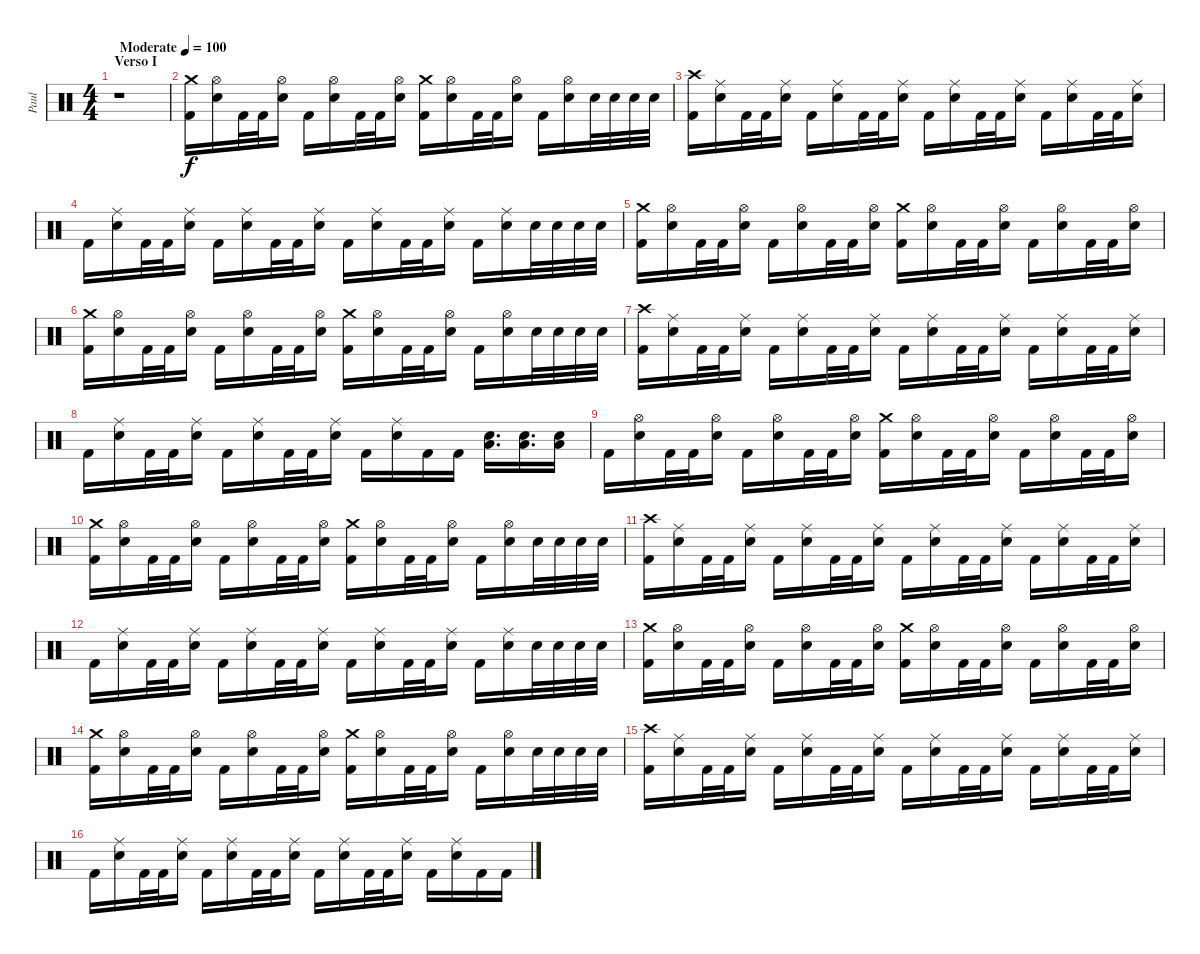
\track ("Paul" "Paul") {instrument percussion}
\staff
\articulation defaults
\ts (4 4)
\section ("" "Verso I")
\tempo (100 "Moderate")
\clef neutral
\ks c
r.1{dy f} |
("Crash medium (hit)" "Kick (hit) 2").16 ("Hi-Hat (open)" "Electric Snare (hit)").16 "Kick (hit) 2".32 "Kick (hit) 2".32 ("Hi-Hat (open)" "Electric Snare (hit)").16 "Kick (hit) 2".16 ("Hi-Hat (open)" "Electric Snare (hit)").16 "Kick (hit) 2".32 "Kick (hit) 2".32 ("Hi-Hat (open)" "Electric Snare (hit)").16 ("Crash medium (hit)" "Kick (hit) 2").16 ("Hi-Hat (open)" "Electric Snare (hit)").16 "Kick (hit) 2".32 "Kick (hit) 2".32 ("Hi-Hat (open)" "Electric Snare (hit)").16 "Kick (hit) 2".16 ("Hi-Hat (open)" "Electric Snare (hit)").16 "Electric Snare (hit)".32 "Electric Snare (hit)".32 "Electric Snare (hit)".32 "Electric Snare (hit)".32 |
("Crash high (hit)" "Kick (hit) 2").16 ("Ride (middle)" "Electric Snare (hit)").16 "Kick (hit) 2".32 "Kick (hit) 2".32 ("Ride (middle)" "Electric Snare (hit)").16 "Kick (hit) 2".16 ("Ride (middle)" "Electric Snare (hit)").16 "Kick (hit) 2".32 "Kick (hit) 2".32 ("Ride (middle)" "Electric Snare (hit)").16 "Kick (hit) 2".16 ("Ride (middle)" "Electric Snare (hit)").16 "Kick (hit) 2".32 "Kick (hit) 2".32 ("Ride (middle)" "Electric Snare (hit)").16 "Kick (hit) 2".16 ("Ride (middle)" "Electric Snare (hit)").16 "Kick (hit) 2".32 "Kick (hit) 2".32 ("Ride (middle)" "Electric Snare (hit)").16 |
"Kick (hit) 2".16 ("Ride (middle)" "Electric Snare (hit)").16 "Kick (hit) 2".32 "Kick (hit) 2".32 ("Ride (middle)" "Electric Snare (hit)").16 "Kick (hit) 2".16 ("Ride (middle)" "Electric Snare (hit)").16 "Kick (hit) 2".32 "Kick (hit) 2".32 ("Ride (middle)" "Electric Snare (hit)").16 "Kick (hit) 2".16 ("Ride (middle)" "Electric Snare (hit)").16 "Kick (hit) 2".32 "Kick (hit) 2".32 ("Ride (middle)" "Electric Snare (hit)").16 "Kick (hit) 2".16 ("Ride (middle)" "Electric Snare (hit)").16 "Electric Snare (hit)".32 "Electric Snare (hit)".32 "Electric Snare (hit)".32 "Electric Snare (hit)".32 |
("Crash medium (hit)" "Kick (hit) 2").16 ("Hi-Hat (open)" "Electric Snare (hit)").16 "Kick (hit) 2".32 "Kick (hit) 2".32 ("Hi-Hat (open)" "Electric Snare (hit)").16 "Kick (hit) 2".16 ("Hi-Hat (open)" "Electric Snare (hit)").16 "Kick (hit) 2".32 "Kick (hit) 2".32 ("Hi-Hat (open)" "Electric Snare (hit)").16 ("Crash medium (hit)" "Kick (hit) 2").16 ("Hi-Hat (open)" "Electric Snare (hit)").16 "Kick (hit) 2".32 "Kick (hit) 2".32 ("Hi-Hat (open)" "Electric Snare (hit)").16 "Kick (hit) 2".16 ("Hi-Hat (open)" "Electric Snare (hit)").16 "Kick (hit) 2".32 "Kick (hit) 2".32 ("Hi-Hat (open)" "Electric Snare (hit)").16 |
("Crash medium (hit)" "Kick (hit) 2").16 ("Hi-Hat (open)" "Electric Snare (hit)").16 "Kick (hit) 2".32 "Kick (hit) 2".32 ("Hi-Hat (open)" "Electric Snare (hit)").16 "Kick (hit) 2".16 ("Hi-Hat (open)" "Electric Snare (hit)").16 "Kick (hit) 2".32 "Kick (hit) 2".32 ("Hi-Hat (open)" "Electric Snare (hit)").16 ("Crash medium (hit)" "Kick (hit) 2").16 ("Hi-Hat (open)" "Electric Snare (hit)").16 "Kick (hit) 2".32 "Kick (hit) 2".32 ("Hi-Hat (open)" "Electric Snare (hit)").16 "Kick (hit) 2".16 ("Hi-Hat (open)" "Electric Snare (hit)").16 "Electric Snare (hit)".32 "Electric Snare (hit)".32 "Electric Snare (hit)".32 "Electric Snare (hit)".32 |
("Crash high (hit)" "Kick (hit) 2").16 ("Ride (middle)" "Electric Snare (hit)").16 "Kick (hit) 2".32 "Kick (hit) 2".32 ("Ride (middle)" "Electric Snare (hit)").16 "Kick (hit) 2".16 ("Ride (middle)" "Electric Snare (hit)").16 "Kick (hit) 2".32 "Kick (hit) 2".32 ("Ride (middle)" "Electric Snare (hit)").16 "Kick (hit) 2".16 ("Ride (middle)" "Electric Snare (hit)").16 "Kick (hit) 2".32 "Kick (hit) 2".32 ("Ride (middle)" "Electric Snare (hit)").16 "Kick (hit) 2".16 ("Ride (middle)" "Electric Snare (hit)").16 "Kick (hit) 2".32 "Kick (hit) 2".32 ("Ride (middle)" "Electric Snare (hit)").16 |
"Kick (hit) 2".16 ("Ride (middle)" "Electric Snare (hit)").16 "Kick (hit) 2".32 "Kick (hit) 2".32 ("Ride (middle)" "Electric Snare (hit)").16 "Kick (hit) 2".16 ("Ride (middle)" "Electric Snare (hit)").16 "Kick (hit) 2".32 "Kick (hit) 2".32 ("Ride (middle)" "Electric Snare (hit)").16 "Kick (hit) 2".16 ("Ride (middle)" "Electric Snare (hit)").16 "Kick (hit) 2".16 "Kick (hit) 2".16 ("Electric Snare (hit)" "Low Floor Tom (hit)").16{d} ("Electric Snare (hit)" "Low Floor Tom (hit)").16{d} ("Electric Snare (hit)" "Low Floor Tom (hit)").16 |
"Kick (hit) 2".16 ("Hi-Hat (open)" "Electric Snare (hit)").16 "Kick (hit) 2".32 "Kick (hit) 2".32 ("Hi-Hat (open)" "Electric Snare (hit)").16 "Kick (hit) 2".16 ("Hi-Hat (open)" "Electric Snare (hit)").16 "Kick (hit) 2".32 "Kick (hit) 2".32 ("Hi-Hat (open)" "Electric Snare (hit)").16 ("Crash medium (hit)" "Kick (hit) 2").16 ("Hi-Hat (open)" "Electric Snare (hit)").16 "Kick (hit) 2".32 "Kick (hit) 2".32 ("Hi-Hat (open)" "Electric Snare (hit)").16 "Kick (hit) 2".16 ("Hi-Hat (open)" "Electric Snare (hit)").16 "Kick (hit) 2".32 "Kick (hit) 2".32 ("Hi-Hat (open)" "Electric Snare (hit)").16 |
("Crash medium (hit)" "Kick (hit) 2").16 ("Hi-Hat (open)" "Electric Snare (hit)").16 "Kick (hit) 2".32 "Kick (hit) 2".32 ("Hi-Hat (open)" "Electric Snare (hit)").16 "Kick (hit) 2".16 ("Hi-Hat (open)" "Electric Snare (hit)").16 "Kick (hit) 2".32 "Kick (hit) 2".32 ("Hi-Hat (open)" "Electric Snare (hit)").16 ("Crash medium (hit)" "Kick (hit) 2").16 ("Hi-Hat (open)" "Electric Snare (hit)").16 "Kick (hit) 2".32 "Kick (hit) 2".32 ("Hi-Hat (open)" "Electric Snare (hit)").16 "Kick (hit) 2".16 ("Hi-Hat (open)" "Electric Snare (hit)").16 "Electric Snare (hit)".32 "Electric Snare (hit)".32 "Electric Snare (hit)".32 "Electric Snare (hit)".32 |
("Crash high (hit)" "Kick (hit) 2").16 ("Ride (middle)" "Electric Snare (hit)").16 "Kick (hit) 2".32 "Kick (hit) 2".32 ("Ride (middle)" "Electric Snare (hit)").16 "Kick (hit) 2".16 ("Ride (middle)" "Electric Snare (hit)").16 "Kick (hit) 2".32 "Kick (hit) 2".32 ("Ride (middle)" "Electric Snare (hit)").16 "Kick (hit) 2".16 ("Ride (middle)" "Electric Snare (hit)").16 "Kick (hit) 2".32 "Kick (hit) 2".32 ("Ride (middle)" "Electric Snare (hit)").16 "Kick (hit) 2".16 ("Ride (middle)" "Electric Snare (hit)").16 "Kick (hit) 2".32 "Kick (hit) 2".32 ("Ride (middle)" "Electric Snare (hit)").16 |
"Kick (hit) 2".16 ("Ride (middle)" "Electric Snare (hit)").16 "Kick (hit) 2".32 "Kick (hit) 2".32 ("Ride (middle)" "Electric Snare (hit)").16 "Kick (hit) 2".16 ("Ride (middle)" "Electric Snare (hit)").16 "Kick (hit) 2".32 "Kick (hit) 2".32 ("Ride (middle)" "Electric Snare (hit)").16 "Kick (hit) 2".16 ("Ride (middle)" "Electric Snare (hit)").16 "Kick (hit) 2".32 "Kick (hit) 2".32 ("Ride (middle)" "Electric Snare (hit)").16 "Kick (hit) 2".16 ("Ride (middle)" "Electric Snare (hit)").16 "Electric Snare (hit)".32 "Electric Snare (hit)".32 "Electric Snare (hit)".32 "Electric Snare (hit)".32 |
("Crash medium (hit)" "Kick (hit) 2").16 ("Hi-Hat (open)" "Electric Snare (hit)").16 "Kick (hit) 2".32 "Kick (hit) 2".32 ("Hi-Hat (open)" "Electric Snare (hit)").16 "Kick (hit) 2".16 ("Hi-Hat (open)" "Electric Snare (hit)").16 "Kick (hit) 2".32 "Kick (hit) 2".32 ("Hi-Hat (open)" "Electric Snare (hit)").16 ("Crash medium (hit)" "Kick (hit) 2").16 ("Hi-Hat (open)" "Electric Snare (hit)").16 "Kick (hit) 2".32 "Kick (hit) 2".32 ("Hi-Hat (open)" "Electric Snare (hit)").16 "Kick (hit) 2".16 ("Hi-Hat (open)" "Electric Snare (hit)").16 "Kick (hit) 2".32 "Kick (hit) 2".32 ("Hi-Hat (open)" "Electric Snare (hit)").16 |
("Crash medium (hit)" "Kick (hit) 2").16 ("Hi-Hat (open)" "Electric Snare (hit)").16 "Kick (hit) 2".32 "Kick (hit) 2".32 ("Hi-Hat (open)" "Electric Snare (hit)").16 "Kick (hit) 2".16 ("Hi-Hat (open)" "Electric Snare (hit)").16 "Kick (hit) 2".32 "Kick (hit) 2".32 ("Hi-Hat (open)" "Electric Snare (hit)").16 ("Crash medium (hit)" "Kick (hit) 2").16 ("Hi-Hat (open)" "Electric Snare (hit)").16 "Kick (hit) 2".32 "Kick (hit) 2".32 ("Hi-Hat (open)" "Electric Snare (hit)").16 "Kick (hit) 2".16 ("Hi-Hat (open)" "Electric Snare (hit)").16 "Electric Snare (hit)".32 "Electric Snare (hit)".32 "Electric Snare (hit)".32 "Electric Snare (hit)".32 |
("Crash high (hit)" "Kick (hit) 2").16 ("Ride (middle)" "Electric Snare (hit)").16 "Kick (hit) 2".32 "Kick (hit) 2".32 ("Ride (middle)" "Electric Snare (hit)").16 "Kick (hit) 2".16 ("Ride (middle)" "Electric Snare (hit)").16 "Kick (hit) 2".32 "Kick (hit) 2".32 ("Ride (middle)" "Electric Snare (hit)").16 "Kick (hit) 2".16 ("Ride (middle)" "Electric Snare (hit)").16 "Kick (hit) 2".32 "Kick (hit) 2".32 ("Ride (middle)" "Electric Snare (hit)").16 "Kick (hit) 2".16 ("Ride (middle)" "Electric Snare (hit)").16 "Kick (hit) 2".32 "Kick (hit) 2".32 ("Ride (middle)" "Electric Snare (hit)").16 |
"Kick (hit) 2".16 ("Ride (middle)" "Electric Snare (hit)").16 "Kick (hit) 2".32 "Kick (hit) 2".32 ("Ride (middle)" "Electric Snare (hit)").16 "Kick (hit) 2".16 ("Ride (middle)" "Electric Snare (hit)").16 "Kick (hit) 2".32 "Kick (hit) 2".32 ("Ride (middle)" "Electric Snare (hit)").16 "Kick (hit) 2".16 ("Ride (middle)" "Electric Snare (hit)").16 "Kick (hit) 2".32 "Kick (hit) 2".32 ("Ride (middle)" "Electric Snare (hit)").16 "Kick (hit) 2".16 ("Ride (middle)" "Electric Snare (hit)").16 "Kick (hit) 2".16 "Kick (hit) 2".16
